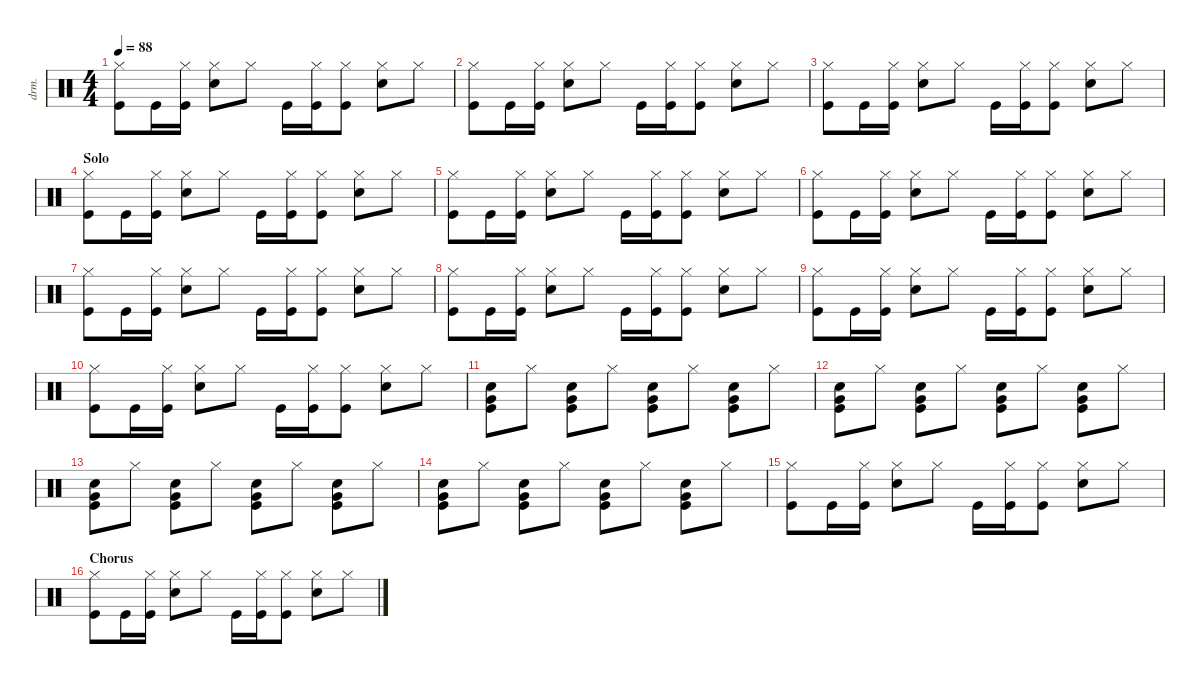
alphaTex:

\defaultSystemsLayout 4
\hideDynamics
\bracketExtendMode nobrackets
\otherSystemsTrackNameOrientation horizontal
\track ("Drums" "drm.") {instrument percussion}
\staff {score}
\articulation defaults
\ts (4 4)
\tempo 88
\clef neutral
\ks c
("Hi-Hat (closed)" "Kick (hit)").8{dy f} "Kick (hit)".16 ("Hi-Hat (closed)" "Kick (hit)").16 ("Hi-Hat (closed)" "Snare (hit) 2").8 "Hi-Hat (closed)".8 "Kick (hit)".16 ("Hi-Hat (closed)" "Kick (hit)").16 ("Hi-Hat (closed)" "Kick (hit)").8 ("Hi-Hat (closed)" "Snare (hit) 2").8 "Hi-Hat (closed)".8 |
("Hi-Hat (closed)" "Kick (hit)").8 "Kick (hit)".16 ("Hi-Hat (closed)" "Kick (hit)").16 ("Hi-Hat (closed)" "Snare (hit) 2").8 "Hi-Hat (closed)".8 "Kick (hit)".16 ("Hi-Hat (closed)" "Kick (hit)").16 ("Hi-Hat (closed)" "Kick (hit)").8 ("Hi-Hat (closed)" "Snare (hit) 2").8 "Hi-Hat (closed)".8 |
("Hi-Hat (closed)" "Kick (hit)").8 "Kick (hit)".16 ("Hi-Hat (closed)" "Kick (hit)").16 ("Hi-Hat (closed)" "Snare (hit) 2").8 "Hi-Hat (closed)".8 "Kick (hit)".16 ("Hi-Hat (closed)" "Kick (hit)").16 ("Hi-Hat (closed)" "Kick (hit)").8 ("Hi-Hat (closed)" "Snare (hit) 2").8 "Hi-Hat (closed)".8 |
\section ("" "Solo")
("Hi-Hat (closed)" "Kick (hit)").8 "Kick (hit)".16 ("Hi-Hat (closed)" "Kick (hit)").16 ("Hi-Hat (closed)" "Snare (hit) 2").8 "Hi-Hat (closed)".8 "Kick (hit)".16 ("Hi-Hat (closed)" "Kick (hit)").16 ("Hi-Hat (closed)" "Kick (hit)").8 ("Hi-Hat (closed)" "Snare (hit) 2").8 "Hi-Hat (closed)".8 |
("Hi-Hat (closed)" "Kick (hit)").8 "Kick (hit)".16 ("Hi-Hat (closed)" "Kick (hit)").16 ("Hi-Hat (closed)" "Snare (hit) 2").8 "Hi-Hat (closed)".8 "Kick (hit)".16 ("Hi-Hat (closed)" "Kick (hit)").16 ("Hi-Hat (closed)" "Kick (hit)").8 ("Hi-Hat (closed)" "Snare (hit) 2").8 "Hi-Hat (closed)".8 |
("Hi-Hat (closed)" "Kick (hit)").8 "Kick (hit)".16 ("Hi-Hat (closed)" "Kick (hit)").16 ("Hi-Hat (closed)" "Snare (hit) 2").8 "Hi-Hat (closed)".8 "Kick (hit)".16 ("Hi-Hat (closed)" "Kick (hit)").16 ("Hi-Hat (closed)" "Kick (hit)").8 ("Hi-Hat (closed)" "Snare (hit) 2").8 "Hi-Hat (closed)".8 |
("Hi-Hat (closed)" "Kick (hit)").8 "Kick (hit)".16 ("Hi-Hat (closed)" "Kick (hit)").16 ("Hi-Hat (closed)" "Snare (hit) 2").8 "Hi-Hat (closed)".8 "Kick (hit)".16 ("Hi-Hat (closed)" "Kick (hit)").16 ("Hi-Hat (closed)" "Kick (hit)").8 ("Hi-Hat (closed)" "Snare (hit) 2").8 "Hi-Hat (closed)".8 |
("Hi-Hat (closed)" "Kick (hit)").8 "Kick (hit)".16 ("Hi-Hat (closed)" "Kick (hit)").16 ("Hi-Hat (closed)" "Snare (hit) 2").8 "Hi-Hat (closed)".8 "Kick (hit)".16 ("Hi-Hat (closed)" "Kick (hit)").16 ("Hi-Hat (closed)" "Kick (hit)").8 ("Hi-Hat (closed)" "Snare (hit) 2").8 "Hi-Hat (closed)".8 |
("Hi-Hat (closed)" "Kick (hit)").8 "Kick (hit)".16 ("Hi-Hat (closed)" "Kick (hit)").16 ("Hi-Hat (closed)" "Snare (hit) 2").8 "Hi-Hat (closed)".8 "Kick (hit)".16 ("Hi-Hat (closed)" "Kick (hit)").16 ("Hi-Hat (closed)" "Kick (hit)").8 ("Hi-Hat (closed)" "Snare (hit) 2").8 "Hi-Hat (closed)".8 |
("Hi-Hat (closed)" "Kick (hit)").8 "Kick (hit)".16 ("Hi-Hat (closed)" "Kick (hit)").16 ("Hi-Hat (closed)" "Snare (hit) 2").8 "Hi-Hat (closed)".8 "Kick (hit)".16 ("Hi-Hat (closed)" "Kick (hit)").16 ("Hi-Hat (closed)" "Kick (hit)").8 ("Hi-Hat (closed)" "Snare (hit) 2").8 "Hi-Hat (closed)".8 |
("Very Low Tom (hit)" "Snare (hit) 2" "Kick (hit)").8 "Hi-Hat (closed)".8 ("Snare (hit) 2" "Kick (hit)" "Very Low Tom (hit)").8 "Hi-Hat (closed)".8 ("Snare (hit) 2" "Kick (hit)" "Very Low Tom (hit)").8 "Hi-Hat (closed)".8 ("Snare (hit) 2" "Very Low Tom (hit)" "Kick (hit)").8 "Hi-Hat (closed)".8 |
("Very Low Tom (hit)" "Snare (hit) 2" "Kick (hit)").8 "Hi-Hat (closed)".8 ("Snare (hit) 2" "Kick (hit)" "Very Low Tom (hit)").8 "Hi-Hat (closed)".8 ("Snare (hit) 2" "Kick (hit)" "Very Low Tom (hit)").8 "Hi-Hat (closed)".8 ("Snare (hit) 2" "Very Low Tom (hit)" "Kick (hit)").8 "Hi-Hat (closed)".8 |
("Very Low Tom (hit)" "Snare (hit) 2" "Kick (hit)").8 "Hi-Hat (closed)".8 ("Snare (hit) 2" "Kick (hit)" "Very Low Tom (hit)").8 "Hi-Hat (closed)".8 ("Snare (hit) 2" "Kick (hit)" "Very Low Tom (hit)").8 "Hi-Hat (closed)".8 ("Snare (hit) 2" "Very Low Tom (hit)" "Kick (hit)").8 "Hi-Hat (closed)".8 |
("Very Low Tom (hit)" "Snare (hit) 2" "Kick (hit)").8 "Hi-Hat (closed)".8 ("Snare (hit) 2" "Kick (hit)" "Very Low Tom (hit)").8 "Hi-Hat (closed)".8 ("Snare (hit) 2" "Kick (hit)" "Very Low Tom (hit)").8 "Hi-Hat (closed)".8 ("Snare (hit) 2" "Very Low Tom (hit)" "Kick (hit)").8 "Hi-Hat (closed)".8 |
("Hi-Hat (closed)" "Kick (hit)").8 "Kick (hit)".16 ("Hi-Hat (closed)" "Kick (hit)").16 ("Hi-Hat (closed)" "Snare (hit) 2").8 "Hi-Hat (closed)".8 "Kick (hit)".16 ("Hi-Hat (closed)" "Kick (hit)").16 ("Hi-Hat (closed)" "Kick (hit)").8 ("Hi-Hat (closed)" "Snare (hit) 2").8 "Hi-Hat (closed)".8 |
\section ("" "Chorus")
("Hi-Hat (closed)" "Kick (hit)").8 "Kick (hit)".16 ("Hi-Hat (closed)" "Kick (hit)").16 ("Hi-Hat (closed)" "Snare (hit) 2").8 "Hi-Hat (closed)".8 "Kick (hit)".16 ("Hi-Hat (closed)" "Kick (hit)").16 ("Hi-Hat (closed)" "Kick (hit)").8 ("Hi-Hat (closed)" "Snare (hit) 2").8 "Hi-Hat (closed)".8
